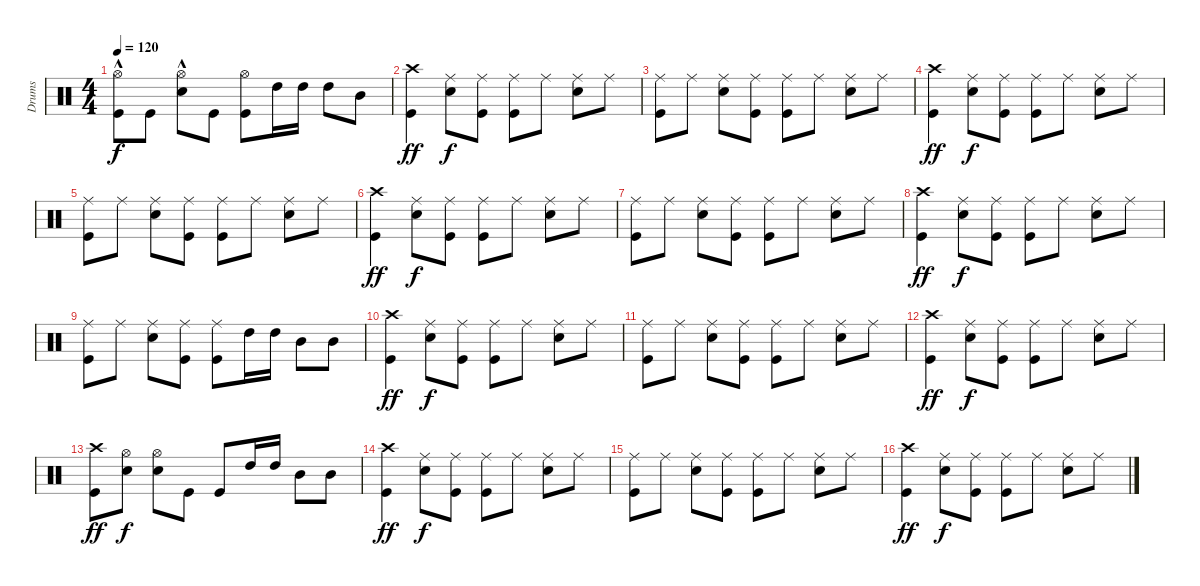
\track ("Drums" "Drums") {instrument percussion}
\staff {score}
\articulation defaults
\ts (4 4)
\tempo 120
\clef neutral
\ks c
("Hi-Hat (open)"{hac} "Kick (hit)").8{dy f} "Kick (hit)".8 ("Hi-Hat (open)"{hac} "Snare (hit) 2").8 "Kick (hit)".8 ("Kick (hit)" "Hi-Hat (open)").8 "High Tom (hit)".16 "High Tom (hit)".16 "High Tom (hit)".8 "Mid Tom (hit)".8 |
("Kick (hit)" "Crash high (hit)").4{dy ff} ("Snare (hit) 2" "Ride (middle)").8{dy f} ("Kick (hit)" "Ride (middle)").8 ("Kick (hit)" "Ride (middle)").8 "Ride (middle)".8 ("Snare (hit) 2" "Ride (middle)").8 "Ride (middle)".8 |
("Kick (hit)" "Ride (middle)").8 "Ride (middle)".8 ("Snare (hit) 2" "Ride (middle)").8 ("Kick (hit)" "Ride (middle)").8 ("Kick (hit)" "Ride (middle)").8 "Ride (middle)".8 ("Snare (hit) 2" "Ride (middle)").8 "Ride (middle)".8 |
("Kick (hit)" "Crash high (hit)").4{dy ff} ("Snare (hit) 2" "Ride (middle)").8{dy f} ("Kick (hit)" "Ride (middle)").8 ("Kick (hit)" "Ride (middle)").8 "Ride (middle)".8 ("Snare (hit) 2" "Ride (middle)").8 "Ride (middle)".8 |
("Kick (hit)" "Ride (middle)").8 "Ride (middle)".8 ("Snare (hit) 2" "Ride (middle)").8 ("Kick (hit)" "Ride (middle)").8 ("Kick (hit)" "Ride (middle)").8 "Ride (middle)".8 ("Snare (hit) 2" "Ride (middle)").8 "Ride (middle)".8 |
("Kick (hit)" "Crash high (hit)").4{dy ff} ("Snare (hit) 2" "Ride (middle)").8{dy f} ("Kick (hit)" "Ride (middle)").8 ("Kick (hit)" "Ride (middle)").8 "Ride (middle)".8 ("Snare (hit) 2" "Ride (middle)").8 "Ride (middle)".8 |
("Kick (hit)" "Ride (middle)").8 "Ride (middle)".8 ("Snare (hit) 2" "Ride (middle)").8 ("Kick (hit)" "Ride (middle)").8 ("Kick (hit)" "Ride (middle)").8 "Ride (middle)".8 ("Snare (hit) 2" "Ride (middle)").8 "Ride (middle)".8 |
("Kick (hit)" "Crash high (hit)").4{dy ff} ("Snare (hit) 2" "Ride (middle)").8{dy f} ("Kick (hit)" "Ride (middle)").8 ("Kick (hit)" "Ride (middle)").8 "Ride (middle)".8 ("Snare (hit) 2" "Ride (middle)").8 "Ride (middle)".8 |
("Kick (hit)" "Ride (middle)").8 "Ride (middle)".8 ("Snare (hit) 2" "Ride (middle)").8 ("Kick (hit)" "Ride (middle)").8 ("Kick (hit)" "Ride (middle)").8 "High Tom (hit)".16 "High Tom (hit)".16 "Mid Tom (hit)".8 "Mid Tom (hit)".8 |
("Kick (hit)" "Crash high (hit)").4{dy ff} ("Snare (hit) 2" "Ride (middle)").8{dy f} ("Kick (hit)" "Ride (middle)").8 ("Kick (hit)" "Ride (middle)").8 "Ride (middle)".8 ("Snare (hit) 2" "Ride (middle)").8 "Ride (middle)".8 |
("Kick (hit)" "Ride (middle)").8 "Ride (middle)".8 ("Snare (hit) 2" "Ride (middle)").8 ("Kick (hit)" "Ride (middle)").8 ("Kick (hit)" "Ride (middle)").8 "Ride (middle)".8 ("Snare (hit) 2" "Ride (middle)").8 "Ride (middle)".8 |
("Kick (hit)" "Crash high (hit)").4{dy ff} ("Snare (hit) 2" "Ride (middle)").8{dy f} ("Kick (hit)" "Ride (middle)").8 ("Kick (hit)" "Ride (middle)").8 "Ride (middle)".8 ("Snare (hit) 2" "Ride (middle)").8 "Ride (middle)".8 |
("Kick (hit)" "Crash high (hit)").8{dy ff} ("Snare (hit) 2" "Hi-Hat (open)").8{dy f} ("Snare (hit) 2" "Hi-Hat (open)").8 "Kick (hit)".8 "Kick (hit)".8 "High Tom (hit)".16 "High Tom (hit)".16 "Mid Tom (hit)".8 "Mid Tom (hit)".8 |
("Kick (hit)" "Crash high (hit)").4{dy ff} ("Snare (hit) 2" "Ride (middle)").8{dy f} ("Kick (hit)" "Ride (middle)").8 ("Kick (hit)" "Ride (middle)").8 "Ride (middle)".8 ("Snare (hit) 2" "Ride (middle)").8 "Ride (middle)".8 |
("Kick (hit)" "Ride (middle)").8 "Ride (middle)".8 ("Snare (hit) 2" "Ride (middle)").8 ("Kick (hit)" "Ride (middle)").8 ("Kick (hit)" "Ride (middle)").8 "Ride (middle)".8 ("Snare (hit) 2" "Ride (middle)").8 "Ride (middle)".8 |
("Kick (hit)" "Crash high (hit)").4{dy ff} ("Snare (hit) 2" "Ride (middle)").8{dy f} ("Kick (hit)" "Ride (middle)").8 ("Kick (hit)" "Ride (middle)").8 "Ride (middle)".8 ("Snare (hit) 2" "Ride (middle)").8 "Ride (middle)".8
